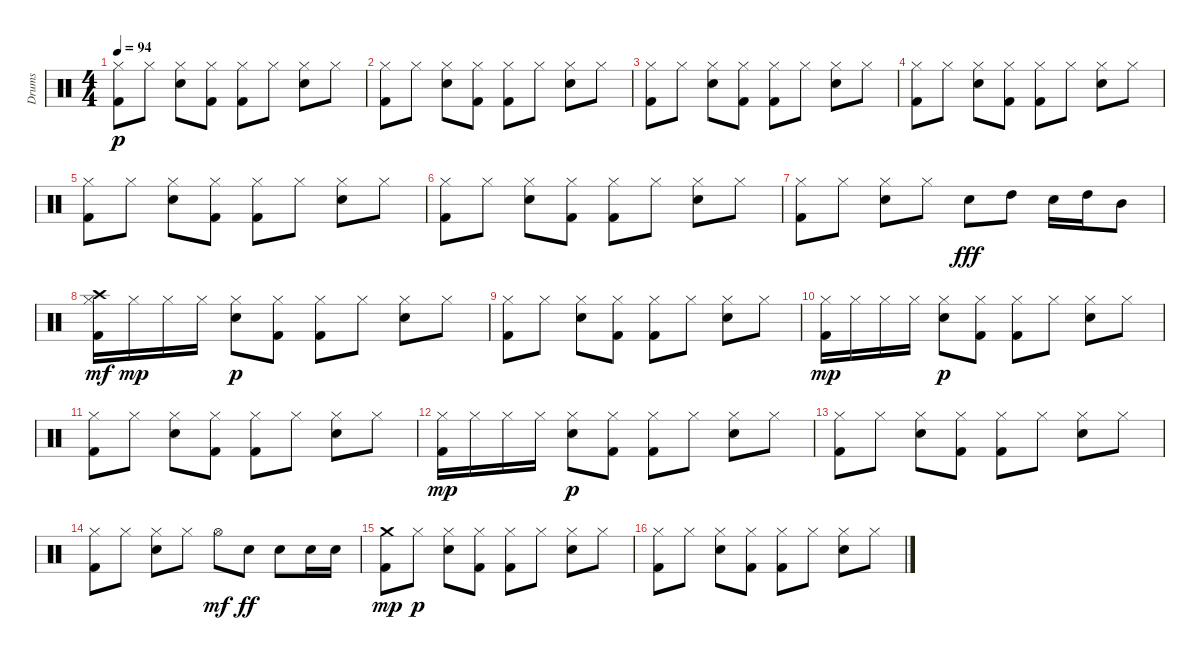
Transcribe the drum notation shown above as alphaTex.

\track ("Drums" "Drums") {instrument percussion}
\staff {score}
\articulation defaults
\ts (4 4)
\tempo 94
\clef neutral
\ks c
("Hi-Hat (closed)" "Kick (hit) 2").8{dy p} "Hi-Hat (closed)".8 ("Hi-Hat (closed)" "Snare (hit) 2").8 ("Hi-Hat (closed)" "Kick (hit) 2").8 ("Hi-Hat (closed)" "Kick (hit) 2").8 "Hi-Hat (closed)".8 ("Hi-Hat (closed)" "Snare (hit) 2").8 "Hi-Hat (closed)".8 |
("Hi-Hat (closed)" "Kick (hit) 2").8 "Hi-Hat (closed)".8 ("Hi-Hat (closed)" "Snare (hit) 2").8 ("Hi-Hat (closed)" "Kick (hit) 2").8 ("Hi-Hat (closed)" "Kick (hit) 2").8 "Hi-Hat (closed)".8 ("Hi-Hat (closed)" "Snare (hit) 2").8 "Hi-Hat (closed)".8 |
("Hi-Hat (closed)" "Kick (hit) 2").8 "Hi-Hat (closed)".8 ("Hi-Hat (closed)" "Snare (hit) 2").8 ("Hi-Hat (closed)" "Kick (hit) 2").8 ("Hi-Hat (closed)" "Kick (hit) 2").8 "Hi-Hat (closed)".8 ("Hi-Hat (closed)" "Snare (hit) 2").8 "Hi-Hat (closed)".8 |
("Hi-Hat (closed)" "Kick (hit) 2").8 "Hi-Hat (closed)".8 ("Hi-Hat (closed)" "Snare (hit) 2").8 ("Hi-Hat (closed)" "Kick (hit) 2").8 ("Hi-Hat (closed)" "Kick (hit) 2").8 "Hi-Hat (closed)".8 ("Hi-Hat (closed)" "Snare (hit) 2").8 "Hi-Hat (closed)".8 |
("Hi-Hat (closed)" "Kick (hit) 2").8 "Hi-Hat (closed)".8 ("Hi-Hat (closed)" "Snare (hit) 2").8 ("Hi-Hat (closed)" "Kick (hit) 2").8 ("Hi-Hat (closed)" "Kick (hit) 2").8 "Hi-Hat (closed)".8 ("Hi-Hat (closed)" "Snare (hit) 2").8 "Hi-Hat (closed)".8 |
("Hi-Hat (closed)" "Kick (hit) 2").8 "Hi-Hat (closed)".8 ("Hi-Hat (closed)" "Snare (hit) 2").8 ("Hi-Hat (closed)" "Kick (hit) 2").8 ("Hi-Hat (closed)" "Kick (hit) 2").8 "Hi-Hat (closed)".8 ("Hi-Hat (closed)" "Snare (hit) 2").8 "Hi-Hat (closed)".8 |
("Hi-Hat (closed)" "Kick (hit) 2").8 "Hi-Hat (closed)".8 ("Hi-Hat (closed)" "Snare (hit) 2").8 "Hi-Hat (closed)".8 "Snare (hit) 2".8{dy fff} "High Tom (hit)".8 "Snare (hit) 2".16 "High Tom (hit)".16 "Mid Tom (hit)".8 |
("Hi-Hat (closed)" "Crash high (hit)" "Kick (hit) 2").16{dy mf} "Hi-Hat (closed)".16{dy mp} "Hi-Hat (closed)".16 "Hi-Hat (closed)".16 ("Hi-Hat (closed)" "Snare (hit) 2").8{dy p} ("Hi-Hat (closed)" "Kick (hit) 2").8 ("Hi-Hat (closed)" "Kick (hit) 2").8 "Hi-Hat (closed)".8 ("Hi-Hat (closed)" "Snare (hit) 2").8 "Hi-Hat (closed)".8 |
("Hi-Hat (closed)" "Kick (hit) 2").8 "Hi-Hat (closed)".8 ("Hi-Hat (closed)" "Snare (hit) 2").8 ("Hi-Hat (closed)" "Kick (hit) 2").8 ("Hi-Hat (closed)" "Kick (hit) 2").8 "Hi-Hat (closed)".8 ("Hi-Hat (closed)" "Snare (hit) 2").8 "Hi-Hat (closed)".8 |
("Hi-Hat (closed)" "Kick (hit) 2").16{dy mp} "Hi-Hat (closed)".16 "Hi-Hat (closed)".16 "Hi-Hat (closed)".16 ("Hi-Hat (closed)" "Snare (hit) 2").8{dy p} ("Hi-Hat (closed)" "Kick (hit) 2").8 ("Hi-Hat (closed)" "Kick (hit) 2").8 "Hi-Hat (closed)".8 ("Hi-Hat (closed)" "Snare (hit) 2").8 "Hi-Hat (closed)".8 |
("Hi-Hat (closed)" "Kick (hit) 2").8 "Hi-Hat (closed)".8 ("Hi-Hat (closed)" "Snare (hit) 2").8 ("Hi-Hat (closed)" "Kick (hit) 2").8 ("Hi-Hat (closed)" "Kick (hit) 2").8 "Hi-Hat (closed)".8 ("Hi-Hat (closed)" "Snare (hit) 2").8 "Hi-Hat (closed)".8 |
("Hi-Hat (closed)" "Kick (hit) 2").16{dy mp} "Hi-Hat (closed)".16 "Hi-Hat (closed)".16 "Hi-Hat (closed)".16 ("Hi-Hat (closed)" "Snare (hit) 2").8{dy p} ("Hi-Hat (closed)" "Kick (hit) 2").8 ("Hi-Hat (closed)" "Kick (hit) 2").8 "Hi-Hat (closed)".8 ("Hi-Hat (closed)" "Snare (hit) 2").8 "Hi-Hat (closed)".8 |
("Hi-Hat (closed)" "Kick (hit) 2").8 "Hi-Hat (closed)".8 ("Hi-Hat (closed)" "Snare (hit) 2").8 ("Hi-Hat (closed)" "Kick (hit) 2").8 ("Hi-Hat (closed)" "Kick (hit) 2").8 "Hi-Hat (closed)".8 ("Hi-Hat (closed)" "Snare (hit) 2").8 "Hi-Hat (closed)".8 |
("Hi-Hat (closed)" "Kick (hit) 2").8 "Hi-Hat (closed)".8 ("Hi-Hat (closed)" "Snare (hit) 2").8 "Hi-Hat (closed)".8 "Hi-Hat (open)".8{dy mf} "Snare (hit) 2".8{dy ff} "Snare (hit) 2".8 "Snare (hit) 2".16 "Snare (hit) 2".16 |
("Crash medium (hit)" "Kick (hit) 2").8{dy mp} "Hi-Hat (closed)".8{dy p} ("Hi-Hat (closed)" "Snare (hit) 2").8 ("Hi-Hat (closed)" "Kick (hit) 2").8 ("Hi-Hat (closed)" "Kick (hit) 2").8 "Hi-Hat (closed)".8 ("Hi-Hat (closed)" "Snare (hit) 2").8 "Hi-Hat (closed)".8 |
("Hi-Hat (closed)" "Kick (hit) 2").8 "Hi-Hat (closed)".8 ("Hi-Hat (closed)" "Snare (hit) 2").8 ("Hi-Hat (closed)" "Kick (hit) 2").8 ("Hi-Hat (closed)" "Kick (hit) 2").8 "Hi-Hat (closed)".8 ("Hi-Hat (closed)" "Snare (hit) 2").8 "Hi-Hat (closed)".8
